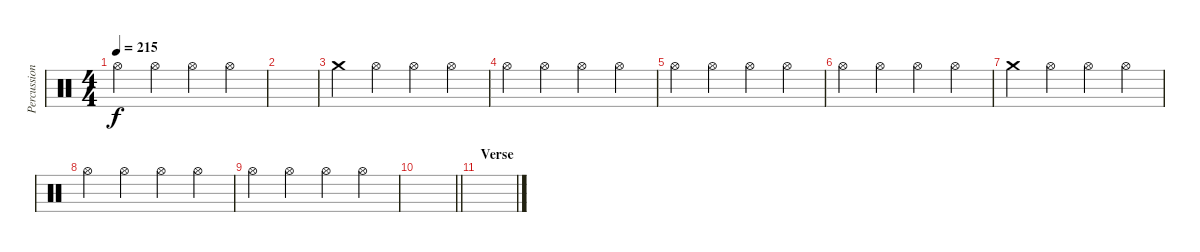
\track ("Percussion" "Percussion") {instrument percussion}
\staff {score}
\articulation defaults
\ts (4 4)
\tempo 215
\clef neutral
\ks c "Hi-Hat (open)".4{dy f} "Hi-Hat (open)".4 "Hi-Hat (open)".4 "Hi-Hat (open)".4
|
|
"Crash medium (hit)".4 "Hi-Hat (open)".4 "Hi-Hat (open)".4 "Hi-Hat (open)".4 |
"Hi-Hat (open)".4 "Hi-Hat (open)".4 "Hi-Hat (open)".4 "Hi-Hat (open)".4 |
"Hi-Hat (open)".4 "Hi-Hat (open)".4 "Hi-Hat (open)".4 "Hi-Hat (open)".4 |
"Hi-Hat (open)".4 "Hi-Hat (open)".4 "Hi-Hat (open)".4 "Hi-Hat (open)".4 |
"Crash medium (hit)".4 "Hi-Hat (open)".4 "Hi-Hat (open)".4 "Hi-Hat (open)".4 |
"Hi-Hat (open)".4 "Hi-Hat (open)".4 "Hi-Hat (open)".4 "Hi-Hat (open)".4 |
"Hi-Hat (open)".4 "Hi-Hat (open)".4 "Hi-Hat (open)".4 "Hi-Hat (open)".4 |
\barLineRight lightlight
|
\section ("" "Verse")
